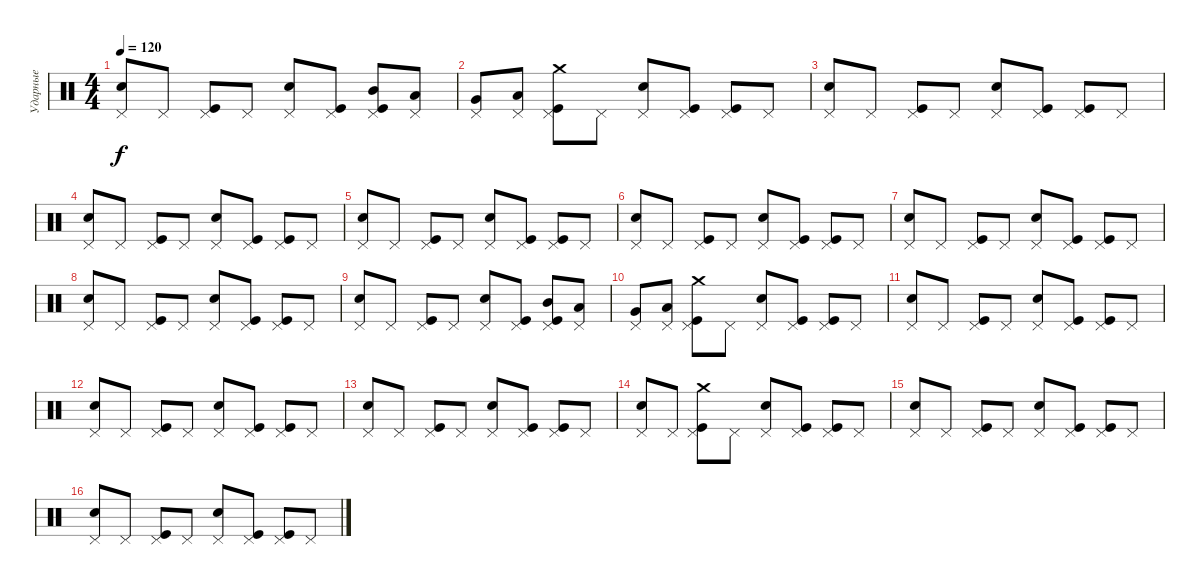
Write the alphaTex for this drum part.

\track ("Ударные" "Ударные") {instrument percussion}
\staff {score}
\articulation defaults
\ts (4 4)
\tempo 120
\clef neutral
\ks c
("Electric Snare (hit)" "Pedal Hi-Hat (hit)").8{dy f} "Pedal Hi-Hat (hit)".8 ("Kick (hit)" "Pedal Hi-Hat (hit)").8 "Pedal Hi-Hat (hit)".8 ("Electric Snare (hit)" "Pedal Hi-Hat (hit)").8 ("Kick (hit)" "Pedal Hi-Hat (hit)").8 ("Kick (hit)" "Pedal Hi-Hat (hit)" "Mid Tom (hit)").8 ("Pedal Hi-Hat (hit)" "Low Tom (hit)").8 |
("Pedal Hi-Hat (hit)" "Very Low Tom (hit)").8 ("Pedal Hi-Hat (hit)" "Low Floor Tom (hit)").8 ("Kick (hit)" "Pedal Hi-Hat (hit)" "Crash medium (hit)").8 "Pedal Hi-Hat (hit)".8 ("Electric Snare (hit)" "Pedal Hi-Hat (hit)").8 ("Kick (hit)" "Pedal Hi-Hat (hit)").8 ("Kick (hit)" "Pedal Hi-Hat (hit)").8 "Pedal Hi-Hat (hit)".8 |
("Electric Snare (hit)" "Pedal Hi-Hat (hit)").8 "Pedal Hi-Hat (hit)".8 ("Kick (hit)" "Pedal Hi-Hat (hit)").8 "Pedal Hi-Hat (hit)".8 ("Electric Snare (hit)" "Pedal Hi-Hat (hit)").8 ("Kick (hit)" "Pedal Hi-Hat (hit)").8 ("Kick (hit)" "Pedal Hi-Hat (hit)").8 "Pedal Hi-Hat (hit)".8 |
("Electric Snare (hit)" "Pedal Hi-Hat (hit)").8 "Pedal Hi-Hat (hit)".8 ("Kick (hit)" "Pedal Hi-Hat (hit)").8 "Pedal Hi-Hat (hit)".8 ("Electric Snare (hit)" "Pedal Hi-Hat (hit)").8 ("Kick (hit)" "Pedal Hi-Hat (hit)").8 ("Kick (hit)" "Pedal Hi-Hat (hit)").8 "Pedal Hi-Hat (hit)".8 |
("Electric Snare (hit)" "Pedal Hi-Hat (hit)").8 "Pedal Hi-Hat (hit)".8 ("Kick (hit)" "Pedal Hi-Hat (hit)").8 "Pedal Hi-Hat (hit)".8 ("Electric Snare (hit)" "Pedal Hi-Hat (hit)").8 ("Kick (hit)" "Pedal Hi-Hat (hit)").8 ("Kick (hit)" "Pedal Hi-Hat (hit)").8 "Pedal Hi-Hat (hit)".8 |
("Electric Snare (hit)" "Pedal Hi-Hat (hit)").8 "Pedal Hi-Hat (hit)".8 ("Kick (hit)" "Pedal Hi-Hat (hit)").8 "Pedal Hi-Hat (hit)".8 ("Electric Snare (hit)" "Pedal Hi-Hat (hit)").8 ("Kick (hit)" "Pedal Hi-Hat (hit)").8 ("Kick (hit)" "Pedal Hi-Hat (hit)").8 "Pedal Hi-Hat (hit)".8 |
("Electric Snare (hit)" "Pedal Hi-Hat (hit)").8 "Pedal Hi-Hat (hit)".8 ("Kick (hit)" "Pedal Hi-Hat (hit)").8 "Pedal Hi-Hat (hit)".8 ("Electric Snare (hit)" "Pedal Hi-Hat (hit)").8 ("Kick (hit)" "Pedal Hi-Hat (hit)").8 ("Kick (hit)" "Pedal Hi-Hat (hit)").8 "Pedal Hi-Hat (hit)".8 |
("Electric Snare (hit)" "Pedal Hi-Hat (hit)").8 "Pedal Hi-Hat (hit)".8 ("Kick (hit)" "Pedal Hi-Hat (hit)").8 "Pedal Hi-Hat (hit)".8 ("Electric Snare (hit)" "Pedal Hi-Hat (hit)").8 ("Kick (hit)" "Pedal Hi-Hat (hit)").8 ("Kick (hit)" "Pedal Hi-Hat (hit)").8 "Pedal Hi-Hat (hit)".8 |
("Electric Snare (hit)" "Pedal Hi-Hat (hit)").8 "Pedal Hi-Hat (hit)".8 ("Kick (hit)" "Pedal Hi-Hat (hit)").8 "Pedal Hi-Hat (hit)".8 ("Electric Snare (hit)" "Pedal Hi-Hat (hit)").8 ("Kick (hit)" "Pedal Hi-Hat (hit)").8 ("Kick (hit)" "Pedal Hi-Hat (hit)" "Mid Tom (hit)").8 ("Pedal Hi-Hat (hit)" "Low Tom (hit)").8 |
("Pedal Hi-Hat (hit)" "Very Low Tom (hit)").8 ("Pedal Hi-Hat (hit)" "Low Floor Tom (hit)").8 ("Kick (hit)" "Pedal Hi-Hat (hit)" "Crash medium (hit)").8 "Pedal Hi-Hat (hit)".8 ("Electric Snare (hit)" "Pedal Hi-Hat (hit)").8 ("Kick (hit)" "Pedal Hi-Hat (hit)").8 ("Kick (hit)" "Pedal Hi-Hat (hit)").8 "Pedal Hi-Hat (hit)".8 |
("Electric Snare (hit)" "Pedal Hi-Hat (hit)").8 "Pedal Hi-Hat (hit)".8 ("Kick (hit)" "Pedal Hi-Hat (hit)").8 "Pedal Hi-Hat (hit)".8 ("Electric Snare (hit)" "Pedal Hi-Hat (hit)").8 ("Kick (hit)" "Pedal Hi-Hat (hit)").8 ("Kick (hit)" "Pedal Hi-Hat (hit)").8 "Pedal Hi-Hat (hit)".8 |
("Electric Snare (hit)" "Pedal Hi-Hat (hit)").8 "Pedal Hi-Hat (hit)".8 ("Kick (hit)" "Pedal Hi-Hat (hit)").8 "Pedal Hi-Hat (hit)".8 ("Electric Snare (hit)" "Pedal Hi-Hat (hit)").8 ("Kick (hit)" "Pedal Hi-Hat (hit)").8 ("Kick (hit)" "Pedal Hi-Hat (hit)").8 "Pedal Hi-Hat (hit)".8 |
("Electric Snare (hit)" "Pedal Hi-Hat (hit)").8 "Pedal Hi-Hat (hit)".8 ("Kick (hit)" "Pedal Hi-Hat (hit)").8 "Pedal Hi-Hat (hit)".8 ("Electric Snare (hit)" "Pedal Hi-Hat (hit)").8 ("Kick (hit)" "Pedal Hi-Hat (hit)").8 ("Kick (hit)" "Pedal Hi-Hat (hit)").8 "Pedal Hi-Hat (hit)".8 |
("Electric Snare (hit)" "Pedal Hi-Hat (hit)").8 "Pedal Hi-Hat (hit)".8 ("Kick (hit)" "Pedal Hi-Hat (hit)" "Crash medium (hit)").8 "Pedal Hi-Hat (hit)".8 ("Electric Snare (hit)" "Pedal Hi-Hat (hit)").8 ("Kick (hit)" "Pedal Hi-Hat (hit)").8 ("Kick (hit)" "Pedal Hi-Hat (hit)").8 "Pedal Hi-Hat (hit)".8 |
("Electric Snare (hit)" "Pedal Hi-Hat (hit)").8 "Pedal Hi-Hat (hit)".8 ("Kick (hit)" "Pedal Hi-Hat (hit)").8 "Pedal Hi-Hat (hit)".8 ("Electric Snare (hit)" "Pedal Hi-Hat (hit)").8 ("Kick (hit)" "Pedal Hi-Hat (hit)").8 ("Kick (hit)" "Pedal Hi-Hat (hit)").8 "Pedal Hi-Hat (hit)".8 |
("Electric Snare (hit)" "Pedal Hi-Hat (hit)").8 "Pedal Hi-Hat (hit)".8 ("Kick (hit)" "Pedal Hi-Hat (hit)").8 "Pedal Hi-Hat (hit)".8 ("Electric Snare (hit)" "Pedal Hi-Hat (hit)").8 ("Kick (hit)" "Pedal Hi-Hat (hit)").8 ("Kick (hit)" "Pedal Hi-Hat (hit)").8 "Pedal Hi-Hat (hit)".8
